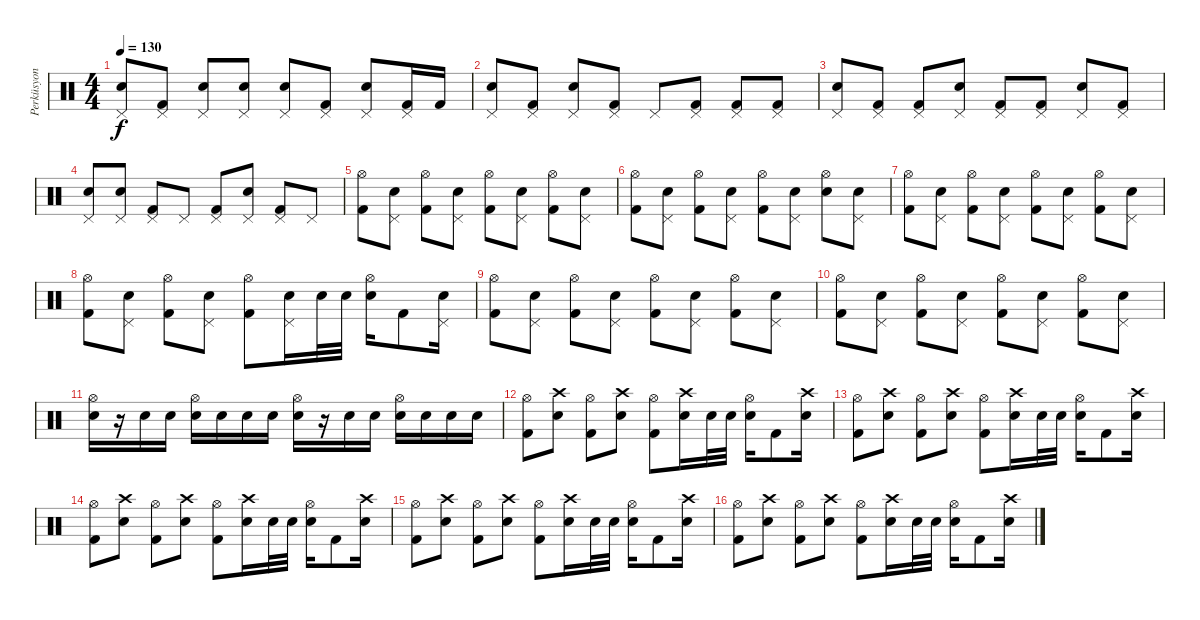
\track ("Perküsyon" "Perküsyon") {instrument percussion}
\staff {score}
\articulation defaults
\ts (4 4)
\tempo 130
\clef neutral
\ks c
("Pedal Hi-Hat (hit)" "Electric Snare (hit)").8{dy f} ("Pedal Hi-Hat (hit)" "Kick (hit) 2").8 ("Pedal Hi-Hat (hit)" "Electric Snare (hit)").8 ("Pedal Hi-Hat (hit)" "Electric Snare (hit)").8 ("Pedal Hi-Hat (hit)" "Electric Snare (hit)").8 ("Pedal Hi-Hat (hit)" "Kick (hit) 2").8 ("Pedal Hi-Hat (hit)" "Electric Snare (hit)").8 ("Pedal Hi-Hat (hit)" "Kick (hit) 2").16 "Kick (hit) 2".16 |
("Pedal Hi-Hat (hit)" "Electric Snare (hit)").8 ("Pedal Hi-Hat (hit)" "Kick (hit) 2").8 ("Pedal Hi-Hat (hit)" "Electric Snare (hit)").8 ("Pedal Hi-Hat (hit)" "Kick (hit) 2").8 "Pedal Hi-Hat (hit)".8 ("Pedal Hi-Hat (hit)" "Kick (hit) 2").8 ("Pedal Hi-Hat (hit)" "Kick (hit) 2").8 ("Pedal Hi-Hat (hit)" "Kick (hit) 2").8 |
("Pedal Hi-Hat (hit)" "Electric Snare (hit)").8 ("Pedal Hi-Hat (hit)" "Kick (hit) 2").8 ("Pedal Hi-Hat (hit)" "Kick (hit) 2").8 ("Pedal Hi-Hat (hit)" "Electric Snare (hit)").8 ("Pedal Hi-Hat (hit)" "Kick (hit) 2").8 ("Pedal Hi-Hat (hit)" "Kick (hit) 2").8 ("Pedal Hi-Hat (hit)" "Electric Snare (hit)").8 ("Pedal Hi-Hat (hit)" "Kick (hit) 2").8 |
("Pedal Hi-Hat (hit)" "Electric Snare (hit)").8 ("Pedal Hi-Hat (hit)" "Electric Snare (hit)").8 ("Pedal Hi-Hat (hit)" "Kick (hit) 2").8 "Pedal Hi-Hat (hit)".8 ("Pedal Hi-Hat (hit)" "Kick (hit) 2").8 ("Pedal Hi-Hat (hit)" "Electric Snare (hit)").8 ("Pedal Hi-Hat (hit)" "Kick (hit) 2").8 "Pedal Hi-Hat (hit)".8 |
("Hi-Hat (open)" "Kick (hit) 2").8 ("Pedal Hi-Hat (hit)" "Electric Snare (hit)").8 ("Hi-Hat (open)" "Kick (hit) 2").8 ("Pedal Hi-Hat (hit)" "Electric Snare (hit)").8 ("Hi-Hat (open)" "Kick (hit) 2").8 ("Pedal Hi-Hat (hit)" "Electric Snare (hit)").8 ("Hi-Hat (open)" "Kick (hit) 2").8 ("Pedal Hi-Hat (hit)" "Electric Snare (hit)").8 |
("Hi-Hat (open)" "Kick (hit) 2").8 ("Pedal Hi-Hat (hit)" "Electric Snare (hit)").8 ("Hi-Hat (open)" "Kick (hit) 2").8 ("Pedal Hi-Hat (hit)" "Electric Snare (hit)").8 ("Hi-Hat (open)" "Kick (hit) 2").8 ("Pedal Hi-Hat (hit)" "Electric Snare (hit)").8 ("Hi-Hat (open)" "Electric Snare (hit)").8 ("Pedal Hi-Hat (hit)" "Electric Snare (hit)").8 |
("Hi-Hat (open)" "Kick (hit) 2").8 ("Pedal Hi-Hat (hit)" "Electric Snare (hit)").8 ("Hi-Hat (open)" "Kick (hit) 2").8 ("Pedal Hi-Hat (hit)" "Electric Snare (hit)").8 ("Hi-Hat (open)" "Kick (hit) 2").8 ("Pedal Hi-Hat (hit)" "Electric Snare (hit)").8 ("Hi-Hat (open)" "Kick (hit) 2").8 ("Pedal Hi-Hat (hit)" "Electric Snare (hit)").8 |
("Hi-Hat (open)" "Kick (hit) 2").8 ("Pedal Hi-Hat (hit)" "Electric Snare (hit)").8 ("Hi-Hat (open)" "Kick (hit) 2").8 ("Pedal Hi-Hat (hit)" "Electric Snare (hit)").8 ("Hi-Hat (open)" "Kick (hit) 2").8 ("Pedal Hi-Hat (hit)" "Electric Snare (hit)").16 "Electric Snare (hit)".32 "Electric Snare (hit)".32 ("Hi-Hat (open)" "Electric Snare (hit)").16 "Kick (hit) 2".8 ("Pedal Hi-Hat (hit)" "Electric Snare (hit)").16 |
("Hi-Hat (open)" "Kick (hit) 2").8 ("Pedal Hi-Hat (hit)" "Electric Snare (hit)").8 ("Hi-Hat (open)" "Kick (hit) 2").8 ("Pedal Hi-Hat (hit)" "Electric Snare (hit)").8 ("Hi-Hat (open)" "Kick (hit) 2").8 ("Pedal Hi-Hat (hit)" "Electric Snare (hit)").8 ("Hi-Hat (open)" "Kick (hit) 2").8 ("Pedal Hi-Hat (hit)" "Electric Snare (hit)").8 |
("Hi-Hat (open)" "Kick (hit) 2").8 ("Pedal Hi-Hat (hit)" "Electric Snare (hit)").8 ("Hi-Hat (open)" "Kick (hit) 2").8 ("Pedal Hi-Hat (hit)" "Electric Snare (hit)").8 ("Hi-Hat (open)" "Kick (hit) 2").8 ("Pedal Hi-Hat (hit)" "Electric Snare (hit)").8 ("Hi-Hat (open)" "Kick (hit) 2").8 ("Pedal Hi-Hat (hit)" "Electric Snare (hit)").8 |
("Hi-Hat (open)" "Electric Snare (hit)").16 r.16 "Electric Snare (hit)".16 "Electric Snare (hit)".16 ("Hi-Hat (open)" "Electric Snare (hit)").16 "Electric Snare (hit)".16 "Electric Snare (hit)".16 "Electric Snare (hit)".16 ("Hi-Hat (open)" "Electric Snare (hit)").16 r.16 "Electric Snare (hit)".16 "Electric Snare (hit)".16 ("Hi-Hat (open)" "Electric Snare (hit)").16 "Electric Snare (hit)".16 "Electric Snare (hit)".16 "Electric Snare (hit)".16 |
("Hi-Hat (open)" "Kick (hit) 2").8 ("Crash high (hit)" "Electric Snare (hit)").8 ("Hi-Hat (open)" "Kick (hit) 2").8 ("Crash high (hit)" "Electric Snare (hit)").8 ("Hi-Hat (open)" "Kick (hit) 2").8 ("Crash high (hit)" "Electric Snare (hit)").16 "Electric Snare (hit)".32 "Electric Snare (hit)".32 ("Hi-Hat (open)" "Electric Snare (hit)").16 "Kick (hit) 2".8 ("Crash high (hit)" "Electric Snare (hit)").16 |
("Hi-Hat (open)" "Kick (hit) 2").8 ("Crash high (hit)" "Electric Snare (hit)").8 ("Hi-Hat (open)" "Kick (hit) 2").8 ("Crash high (hit)" "Electric Snare (hit)").8 ("Hi-Hat (open)" "Kick (hit) 2").8 ("Crash high (hit)" "Electric Snare (hit)").16 "Electric Snare (hit)".32 "Electric Snare (hit)".32 ("Hi-Hat (open)" "Electric Snare (hit)").16 "Kick (hit) 2".8 ("Crash high (hit)" "Electric Snare (hit)").16 |
("Hi-Hat (open)" "Kick (hit) 2").8 ("Crash high (hit)" "Electric Snare (hit)").8 ("Hi-Hat (open)" "Kick (hit) 2").8 ("Crash high (hit)" "Electric Snare (hit)").8 ("Hi-Hat (open)" "Kick (hit) 2").8 ("Crash high (hit)" "Electric Snare (hit)").16 "Electric Snare (hit)".32 "Electric Snare (hit)".32 ("Hi-Hat (open)" "Electric Snare (hit)").16 "Kick (hit) 2".8 ("Crash high (hit)" "Electric Snare (hit)").16 |
("Hi-Hat (open)" "Kick (hit) 2").8 ("Crash high (hit)" "Electric Snare (hit)").8 ("Hi-Hat (open)" "Kick (hit) 2").8 ("Crash high (hit)" "Electric Snare (hit)").8 ("Hi-Hat (open)" "Kick (hit) 2").8 ("Crash high (hit)" "Electric Snare (hit)").16 "Electric Snare (hit)".32 "Electric Snare (hit)".32 ("Hi-Hat (open)" "Electric Snare (hit)").16 "Kick (hit) 2".8 ("Crash high (hit)" "Electric Snare (hit)").16 |
("Hi-Hat (open)" "Kick (hit) 2").8 ("Crash high (hit)" "Electric Snare (hit)").8 ("Hi-Hat (open)" "Kick (hit) 2").8 ("Crash high (hit)" "Electric Snare (hit)").8 ("Hi-Hat (open)" "Kick (hit) 2").8 ("Crash high (hit)" "Electric Snare (hit)").16 "Electric Snare (hit)".32 "Electric Snare (hit)".32 ("Hi-Hat (open)" "Electric Snare (hit)").16 "Kick (hit) 2".8 ("Crash high (hit)" "Electric Snare (hit)").16
